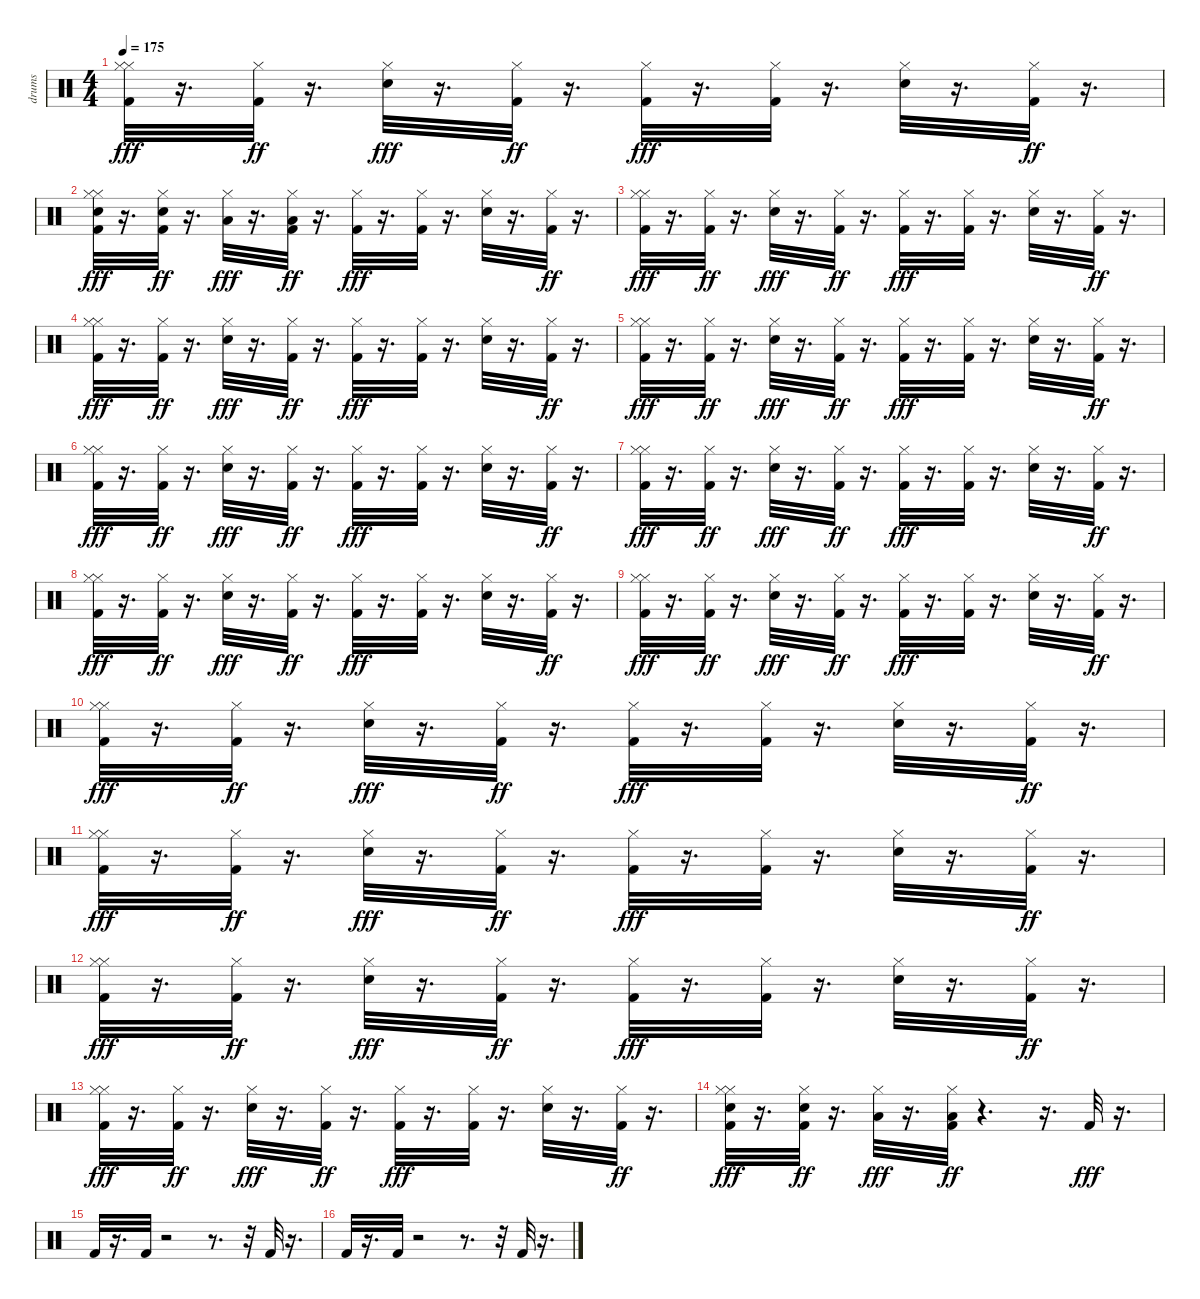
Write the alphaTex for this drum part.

\track ("drums" "drums") {instrument percussion}
\staff {score}
\articulation defaults
\ts (4 4)
\tempo 175
\clef neutral
\ks c
("Hi-Hat (closed)" "Hi-Hat (closed)" "Kick (hit) 2").32{dy fff} r.16{d} ("Hi-Hat (closed)" "Kick (hit) 2").32{dy ff} r.16{d} ("Hi-Hat (closed)" "Electric Snare (hit)").32{dy fff} r.16{d} ("Hi-Hat (closed)" "Kick (hit) 2").32{dy ff} r.16{d} ("Hi-Hat (closed)" "Kick (hit) 2").32{dy fff} r.16{d} ("Hi-Hat (closed)" "Kick (hit) 2").32 r.16{d} ("Hi-Hat (closed)" "Electric Snare (hit)").32 r.16{d} ("Hi-Hat (closed)" "Kick (hit) 2").32{dy ff} r.16{d} |
("Hi-Hat (closed)" "Hi-Hat (closed)" "Electric Snare (hit)" "Kick (hit) 2").32{dy fff} r.16{d} ("Hi-Hat (closed)" "Electric Snare (hit)" "Kick (hit) 2").32{dy ff} r.16{d} ("Hi-Hat (closed)" "Low Tom (hit)").32{dy fff} r.16{d} ("Hi-Hat (closed)" "Low Tom (hit)" "Kick (hit) 2").32{dy ff} r.16{d} ("Hi-Hat (closed)" "Kick (hit) 2").32{dy fff} r.16{d} ("Hi-Hat (closed)" "Kick (hit) 2").32 r.16{d} ("Hi-Hat (closed)" "Electric Snare (hit)").32 r.16{d} ("Hi-Hat (closed)" "Kick (hit) 2").32{dy ff} r.16{d} |
("Hi-Hat (closed)" "Hi-Hat (closed)" "Kick (hit) 2").32{dy fff} r.16{d} ("Hi-Hat (closed)" "Kick (hit) 2").32{dy ff} r.16{d} ("Hi-Hat (closed)" "Electric Snare (hit)").32{dy fff} r.16{d} ("Hi-Hat (closed)" "Kick (hit) 2").32{dy ff} r.16{d} ("Hi-Hat (closed)" "Kick (hit) 2").32{dy fff} r.16{d} ("Hi-Hat (closed)" "Kick (hit) 2").32 r.16{d} ("Hi-Hat (closed)" "Electric Snare (hit)").32 r.16{d} ("Hi-Hat (closed)" "Kick (hit) 2").32{dy ff} r.16{d} |
("Hi-Hat (closed)" "Hi-Hat (closed)" "Kick (hit) 2").32{dy fff} r.16{d} ("Hi-Hat (closed)" "Kick (hit) 2").32{dy ff} r.16{d} ("Hi-Hat (closed)" "Electric Snare (hit)").32{dy fff} r.16{d} ("Hi-Hat (closed)" "Kick (hit) 2").32{dy ff} r.16{d} ("Hi-Hat (closed)" "Kick (hit) 2").32{dy fff} r.16{d} ("Hi-Hat (closed)" "Kick (hit) 2").32 r.16{d} ("Hi-Hat (closed)" "Electric Snare (hit)").32 r.16{d} ("Hi-Hat (closed)" "Kick (hit) 2").32{dy ff} r.16{d} |
("Hi-Hat (closed)" "Hi-Hat (closed)" "Kick (hit) 2").32{dy fff} r.16{d} ("Hi-Hat (closed)" "Kick (hit) 2").32{dy ff} r.16{d} ("Hi-Hat (closed)" "Electric Snare (hit)").32{dy fff} r.16{d} ("Hi-Hat (closed)" "Kick (hit) 2").32{dy ff} r.16{d} ("Hi-Hat (closed)" "Kick (hit) 2").32{dy fff} r.16{d} ("Hi-Hat (closed)" "Kick (hit) 2").32 r.16{d} ("Hi-Hat (closed)" "Electric Snare (hit)").32 r.16{d} ("Hi-Hat (closed)" "Kick (hit) 2").32{dy ff} r.16{d} |
("Hi-Hat (closed)" "Hi-Hat (closed)" "Kick (hit) 2").32{dy fff} r.16{d} ("Hi-Hat (closed)" "Kick (hit) 2").32{dy ff} r.16{d} ("Hi-Hat (closed)" "Electric Snare (hit)").32{dy fff} r.16{d} ("Hi-Hat (closed)" "Kick (hit) 2").32{dy ff} r.16{d} ("Hi-Hat (closed)" "Kick (hit) 2").32{dy fff} r.16{d} ("Hi-Hat (closed)" "Kick (hit) 2").32 r.16{d} ("Hi-Hat (closed)" "Electric Snare (hit)").32 r.16{d} ("Hi-Hat (closed)" "Kick (hit) 2").32{dy ff} r.16{d} |
("Hi-Hat (closed)" "Hi-Hat (closed)" "Kick (hit) 2").32{dy fff} r.16{d} ("Hi-Hat (closed)" "Kick (hit) 2").32{dy ff} r.16{d} ("Hi-Hat (closed)" "Electric Snare (hit)").32{dy fff} r.16{d} ("Hi-Hat (closed)" "Kick (hit) 2").32{dy ff} r.16{d} ("Hi-Hat (closed)" "Kick (hit) 2").32{dy fff} r.16{d} ("Hi-Hat (closed)" "Kick (hit) 2").32 r.16{d} ("Hi-Hat (closed)" "Electric Snare (hit)").32 r.16{d} ("Hi-Hat (closed)" "Kick (hit) 2").32{dy ff} r.16{d} |
("Hi-Hat (closed)" "Hi-Hat (closed)" "Kick (hit) 2").32{dy fff} r.16{d} ("Hi-Hat (closed)" "Kick (hit) 2").32{dy ff} r.16{d} ("Hi-Hat (closed)" "Electric Snare (hit)").32{dy fff} r.16{d} ("Hi-Hat (closed)" "Kick (hit) 2").32{dy ff} r.16{d} ("Hi-Hat (closed)" "Kick (hit) 2").32{dy fff} r.16{d} ("Hi-Hat (closed)" "Kick (hit) 2").32 r.16{d} ("Hi-Hat (closed)" "Electric Snare (hit)").32 r.16{d} ("Hi-Hat (closed)" "Kick (hit) 2").32{dy ff} r.16{d} |
("Hi-Hat (closed)" "Hi-Hat (closed)" "Kick (hit) 2").32{dy fff} r.16{d} ("Hi-Hat (closed)" "Kick (hit) 2").32{dy ff} r.16{d} ("Hi-Hat (closed)" "Electric Snare (hit)").32{dy fff} r.16{d} ("Hi-Hat (closed)" "Kick (hit) 2").32{dy ff} r.16{d} ("Hi-Hat (closed)" "Kick (hit) 2").32{dy fff} r.16{d} ("Hi-Hat (closed)" "Kick (hit) 2").32 r.16{d} ("Hi-Hat (closed)" "Electric Snare (hit)").32 r.16{d} ("Hi-Hat (closed)" "Kick (hit) 2").32{dy ff} r.16{d} |
("Hi-Hat (closed)" "Hi-Hat (closed)" "Kick (hit) 2").32{dy fff} r.16{d} ("Hi-Hat (closed)" "Kick (hit) 2").32{dy ff} r.16{d} ("Hi-Hat (closed)" "Electric Snare (hit)").32{dy fff} r.16{d} ("Hi-Hat (closed)" "Kick (hit) 2").32{dy ff} r.16{d} ("Hi-Hat (closed)" "Kick (hit) 2").32{dy fff} r.16{d} ("Hi-Hat (closed)" "Kick (hit) 2").32 r.16{d} ("Hi-Hat (closed)" "Electric Snare (hit)").32 r.16{d} ("Hi-Hat (closed)" "Kick (hit) 2").32{dy ff} r.16{d} |
("Hi-Hat (closed)" "Hi-Hat (closed)" "Kick (hit) 2").32{dy fff} r.16{d} ("Hi-Hat (closed)" "Kick (hit) 2").32{dy ff} r.16{d} ("Hi-Hat (closed)" "Electric Snare (hit)").32{dy fff} r.16{d} ("Hi-Hat (closed)" "Kick (hit) 2").32{dy ff} r.16{d} ("Hi-Hat (closed)" "Kick (hit) 2").32{dy fff} r.16{d} ("Hi-Hat (closed)" "Kick (hit) 2").32 r.16{d} ("Hi-Hat (closed)" "Electric Snare (hit)").32 r.16{d} ("Hi-Hat (closed)" "Kick (hit) 2").32{dy ff} r.16{d} |
("Hi-Hat (closed)" "Hi-Hat (closed)" "Kick (hit) 2").32{dy fff} r.16{d} ("Hi-Hat (closed)" "Kick (hit) 2").32{dy ff} r.16{d} ("Hi-Hat (closed)" "Electric Snare (hit)").32{dy fff} r.16{d} ("Hi-Hat (closed)" "Kick (hit) 2").32{dy ff} r.16{d} ("Hi-Hat (closed)" "Kick (hit) 2").32{dy fff} r.16{d} ("Hi-Hat (closed)" "Kick (hit) 2").32 r.16{d} ("Hi-Hat (closed)" "Electric Snare (hit)").32 r.16{d} ("Hi-Hat (closed)" "Kick (hit) 2").32{dy ff} r.16{d} |
("Hi-Hat (closed)" "Hi-Hat (closed)" "Kick (hit) 2").32{dy fff} r.16{d} ("Hi-Hat (closed)" "Kick (hit) 2").32{dy ff} r.16{d} ("Hi-Hat (closed)" "Electric Snare (hit)").32{dy fff} r.16{d} ("Hi-Hat (closed)" "Kick (hit) 2").32{dy ff} r.16{d} ("Hi-Hat (closed)" "Kick (hit) 2").32{dy fff} r.16{d} ("Hi-Hat (closed)" "Kick (hit) 2").32 r.16{d} ("Hi-Hat (closed)" "Electric Snare (hit)").32 r.16{d} ("Hi-Hat (closed)" "Kick (hit) 2").32{dy ff} r.16{d} |
("Hi-Hat (closed)" "Hi-Hat (closed)" "Electric Snare (hit)" "Kick (hit) 2").32{dy fff} r.16{d} ("Hi-Hat (closed)" "Electric Snare (hit)" "Kick (hit) 2").32{dy ff} r.16{d} ("Hi-Hat (closed)" "Low Tom (hit)").32{dy fff} r.16{d} ("Hi-Hat (closed)" "Low Tom (hit)" "Kick (hit) 2").32{dy ff} r.4{d} r.16{d} "Kick (hit) 2".32{dy fff} r.16{d} |
"Kick (hit) 2".32 r.16{d} "Kick (hit) 2".32 r.2 r.8{d} r.32 "Kick (hit) 2".32 r.16{d} |
"Kick (hit) 2".32 r.16{d} "Kick (hit) 2".32 r.2 r.8{d} r.32 "Kick (hit) 2".32 r.16{d}
